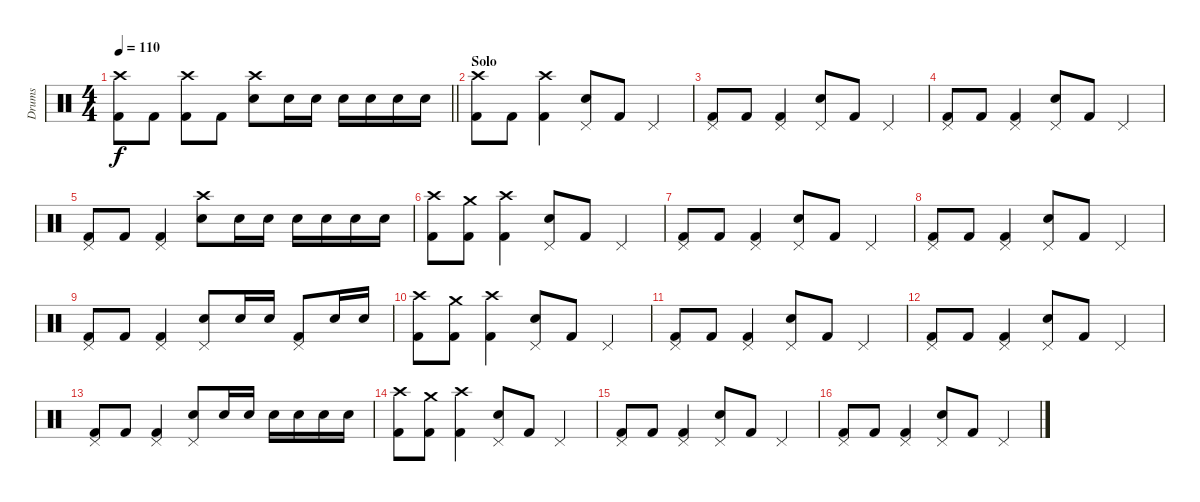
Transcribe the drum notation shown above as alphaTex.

\track ("Drums" "Drums") {instrument percussion}
\staff {score}
\articulation defaults
\ts (4 4)
\tempo 110
\clef neutral
\barLineRight lightlight
\ks c
("Crash high (hit)" "Kick (hit) 2").8{dy f} "Kick (hit) 2".8 ("Crash high (hit)" "Kick (hit) 2").8 "Kick (hit) 2".8 ("Crash high (hit)" "Electric Snare (hit)").8 "Electric Snare (hit)".16 "Electric Snare (hit)".16 "Electric Snare (hit)".16 "Electric Snare (hit)".16 "Electric Snare (hit)".16 "Electric Snare (hit)".16 |
\section ("" "Solo")
("Crash high (hit)" "Kick (hit) 2").8 "Kick (hit) 2".8 ("Crash high (hit)" "Kick (hit) 2").4 ("Pedal Hi-Hat (hit)" "Electric Snare (hit)").8 "Kick (hit) 2".8 "Pedal Hi-Hat (hit)".4 |
("Pedal Hi-Hat (hit)" "Kick (hit) 2").8 "Kick (hit) 2".8 ("Pedal Hi-Hat (hit)" "Kick (hit) 2").4 ("Pedal Hi-Hat (hit)" "Electric Snare (hit)").8 "Kick (hit) 2".8 "Pedal Hi-Hat (hit)".4 |
("Pedal Hi-Hat (hit)" "Kick (hit) 2").8 "Kick (hit) 2".8 ("Pedal Hi-Hat (hit)" "Kick (hit) 2").4 ("Pedal Hi-Hat (hit)" "Electric Snare (hit)").8 "Kick (hit) 2".8 "Pedal Hi-Hat (hit)".4 |
("Pedal Hi-Hat (hit)" "Kick (hit) 2").8 "Kick (hit) 2".8 ("Pedal Hi-Hat (hit)" "Kick (hit) 2").4 ("Crash high (hit)" "Electric Snare (hit)").8 "Electric Snare (hit)".16 "Electric Snare (hit)".16 "Electric Snare (hit)".16 "Electric Snare (hit)".16 "Electric Snare (hit)".16 "Electric Snare (hit)".16 |
("Crash high (hit)" "Kick (hit) 2").8 ("Crash medium (hit)" "Kick (hit) 2").8 ("Crash high (hit)" "Kick (hit) 2").4 ("Pedal Hi-Hat (hit)" "Electric Snare (hit)").8 "Kick (hit) 2".8 "Pedal Hi-Hat (hit)".4 |
("Pedal Hi-Hat (hit)" "Kick (hit) 2").8 "Kick (hit) 2".8 ("Pedal Hi-Hat (hit)" "Kick (hit) 2").4 ("Pedal Hi-Hat (hit)" "Electric Snare (hit)").8 "Kick (hit) 2".8 "Pedal Hi-Hat (hit)".4 |
("Pedal Hi-Hat (hit)" "Kick (hit) 2").8 "Kick (hit) 2".8 ("Pedal Hi-Hat (hit)" "Kick (hit) 2").4 ("Pedal Hi-Hat (hit)" "Electric Snare (hit)").8 "Kick (hit) 2".8 "Pedal Hi-Hat (hit)".4 |
("Pedal Hi-Hat (hit)" "Kick (hit) 2").8 "Kick (hit) 2".8 ("Pedal Hi-Hat (hit)" "Kick (hit) 2").4 ("Pedal Hi-Hat (hit)" "Electric Snare (hit)").8 "Electric Snare (hit)".16 "Electric Snare (hit)".16 ("Pedal Hi-Hat (hit)" "Kick (hit) 2").8 "Electric Snare (hit)".16 "Electric Snare (hit)".16 |
("Crash high (hit)" "Kick (hit) 2").8 ("Crash medium (hit)" "Kick (hit) 2").8 ("Crash high (hit)" "Kick (hit) 2").4 ("Pedal Hi-Hat (hit)" "Electric Snare (hit)").8 "Kick (hit) 2".8 "Pedal Hi-Hat (hit)".4 |
("Pedal Hi-Hat (hit)" "Kick (hit) 2").8 "Kick (hit) 2".8 ("Pedal Hi-Hat (hit)" "Kick (hit) 2").4 ("Pedal Hi-Hat (hit)" "Electric Snare (hit)").8 "Kick (hit) 2".8 "Pedal Hi-Hat (hit)".4 |
("Pedal Hi-Hat (hit)" "Kick (hit) 2").8 "Kick (hit) 2".8 ("Pedal Hi-Hat (hit)" "Kick (hit) 2").4 ("Pedal Hi-Hat (hit)" "Electric Snare (hit)").8 "Kick (hit) 2".8 "Pedal Hi-Hat (hit)".4 |
("Pedal Hi-Hat (hit)" "Kick (hit) 2").8 "Kick (hit) 2".8 ("Pedal Hi-Hat (hit)" "Kick (hit) 2").4 ("Pedal Hi-Hat (hit)" "Electric Snare (hit)").8 "Electric Snare (hit)".16 "Electric Snare (hit)".16 "Electric Snare (hit)".16 "Electric Snare (hit)".16 "Electric Snare (hit)".16 "Electric Snare (hit)".16 |
("Crash high (hit)" "Kick (hit) 2").8 ("Crash medium (hit)" "Kick (hit) 2").8 ("Crash high (hit)" "Kick (hit) 2").4 ("Pedal Hi-Hat (hit)" "Electric Snare (hit)").8 "Kick (hit) 2".8 "Pedal Hi-Hat (hit)".4 |
("Pedal Hi-Hat (hit)" "Kick (hit) 2").8 "Kick (hit) 2".8 ("Pedal Hi-Hat (hit)" "Kick (hit) 2").4 ("Pedal Hi-Hat (hit)" "Electric Snare (hit)").8 "Kick (hit) 2".8 "Pedal Hi-Hat (hit)".4 |
("Pedal Hi-Hat (hit)" "Kick (hit) 2").8 "Kick (hit) 2".8 ("Pedal Hi-Hat (hit)" "Kick (hit) 2").4 ("Pedal Hi-Hat (hit)" "Electric Snare (hit)").8 "Kick (hit) 2".8 "Pedal Hi-Hat (hit)".4
